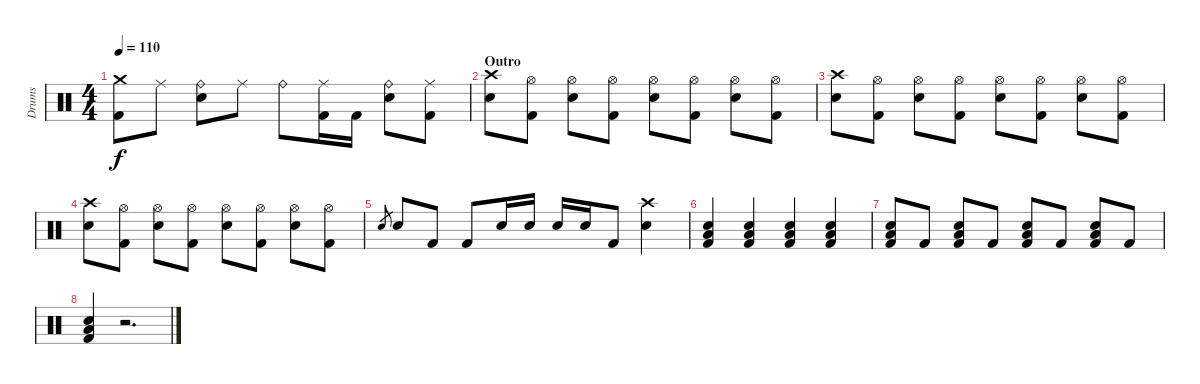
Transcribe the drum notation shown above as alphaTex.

\track ("Drums" "Drums") {instrument percussion}
\staff {score}
\articulation defaults
\ts (4 4)
\tempo 110
\clef neutral
\ks c
("Crash medium (hit)" "Kick (hit) 2").8{dy f} "Ride (middle)".8 ("Ride (bell)" "Electric Snare (hit)").8 "Ride (middle)".8 "Ride (bell)".8 ("Ride (middle)" "Kick (hit) 2").16 "Kick (hit) 2".16 ("Ride (bell)" "Electric Snare (hit)").8 ("Ride (middle)" "Kick (hit) 2").8 |
\section ("" "Outro")
("Crash high (hit)" "Electric Snare (hit)").8 ("Hi-Hat (open)" "Kick (hit) 2").8 ("Hi-Hat (open)" "Electric Snare (hit)").8 ("Hi-Hat (open)" "Kick (hit) 2").8 ("Hi-Hat (open)" "Electric Snare (hit)").8 ("Hi-Hat (open)" "Kick (hit) 2").8 ("Hi-Hat (open)" "Electric Snare (hit)").8 ("Hi-Hat (open)" "Kick (hit) 2").8 |
("Crash high (hit)" "Electric Snare (hit)").8 ("Hi-Hat (open)" "Kick (hit) 2").8 ("Hi-Hat (open)" "Electric Snare (hit)").8 ("Hi-Hat (open)" "Kick (hit) 2").8 ("Hi-Hat (open)" "Electric Snare (hit)").8 ("Hi-Hat (open)" "Kick (hit) 2").8 ("Hi-Hat (open)" "Electric Snare (hit)").8 ("Hi-Hat (open)" "Kick (hit) 2").8 |
("Crash high (hit)" "Electric Snare (hit)").8 ("Hi-Hat (open)" "Kick (hit) 2").8 ("Hi-Hat (open)" "Electric Snare (hit)").8 ("Hi-Hat (open)" "Kick (hit) 2").8 ("Hi-Hat (open)" "Electric Snare (hit)").8 ("Hi-Hat (open)" "Kick (hit) 2").8 ("Hi-Hat (open)" "Electric Snare (hit)").8 ("Hi-Hat (open)" "Kick (hit) 2").8 |
"Electric Snare (hit)".8{gr} "Electric Snare (hit)".8 "Kick (hit) 2".8 "Kick (hit) 2".8 "Electric Snare (hit)".16 "Electric Snare (hit)".16 "Electric Snare (hit)".16 "Electric Snare (hit)".16 "Kick (hit) 2".8 ("Crash high (hit)" "Electric Snare (hit)").4 |
("Electric Snare (hit)" "Low Floor Tom (hit)" "Kick (hit) 2").4 ("Electric Snare (hit)" "Low Floor Tom (hit)" "Kick (hit) 2").4 ("Electric Snare (hit)" "Low Floor Tom (hit)" "Kick (hit) 2").4 ("Electric Snare (hit)" "Low Floor Tom (hit)" "Kick (hit) 2").4 |
("Electric Snare (hit)" "Low Floor Tom (hit)" "Kick (hit) 2").8 "Kick (hit) 2".8 ("Electric Snare (hit)" "Low Floor Tom (hit)" "Kick (hit) 2").8 "Kick (hit) 2".8 ("Electric Snare (hit)" "Low Floor Tom (hit)" "Kick (hit) 2").8 "Kick (hit) 2".8 ("Electric Snare (hit)" "Low Floor Tom (hit)" "Kick (hit) 2").8 "Kick (hit) 2".8 |
("Electric Snare (hit)" "Low Floor Tom (hit)" "Kick (hit) 2").4 r.2{d}
